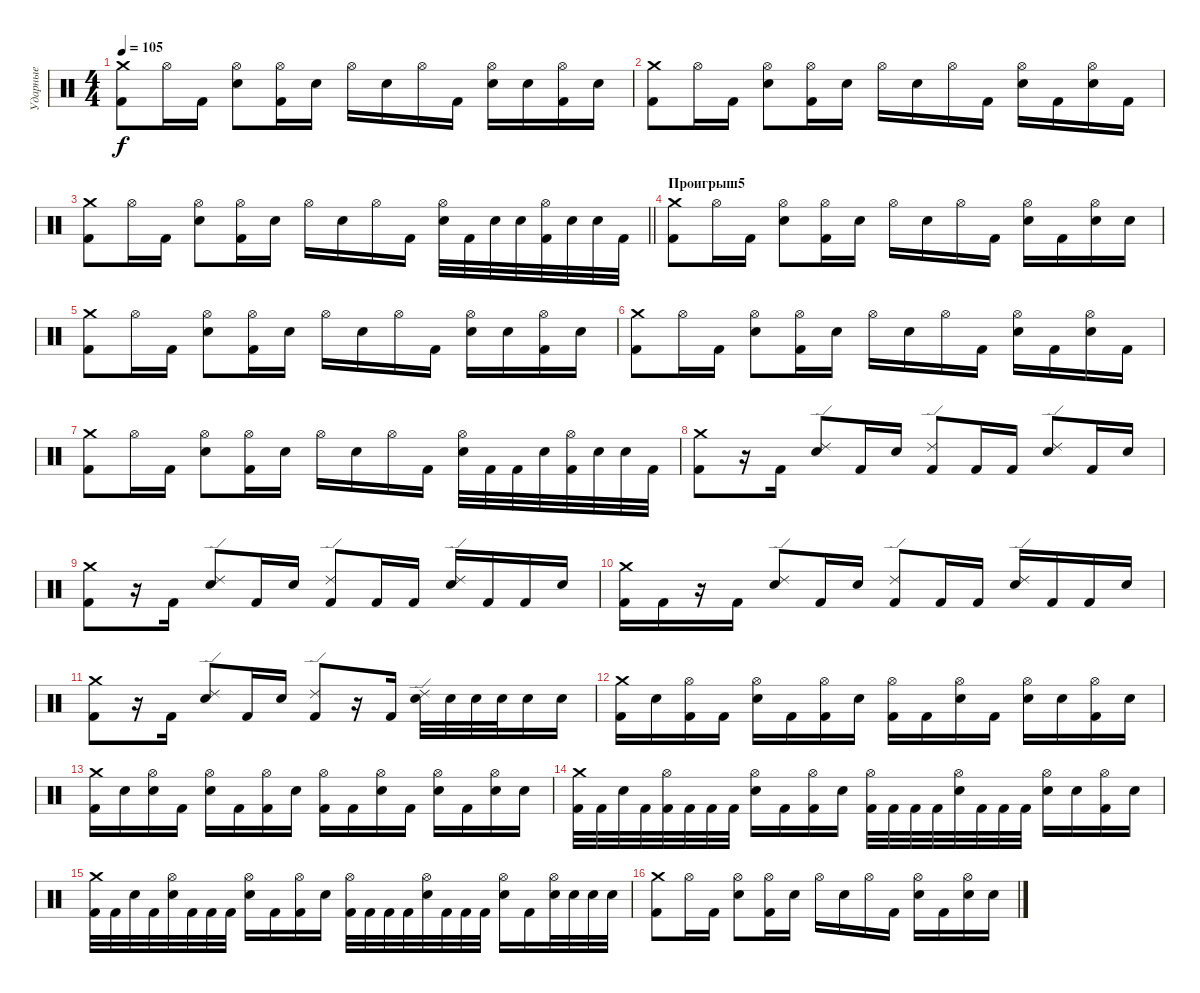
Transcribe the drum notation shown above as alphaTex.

\track ("Ударные" "Ударные") {instrument percussion}
\staff {score}
\articulation defaults
\ts (4 4)
\tempo 105
\clef neutral
\ks c
("Crash medium (hit)" "Kick (hit) 2").8{dy f} "Hi-Hat (open)".16 "Kick (hit) 2".16 ("Hi-Hat (open)" "Electric Snare (hit)").8 ("Hi-Hat (open)" "Kick (hit) 2").16 "Electric Snare (hit)".16 "Hi-Hat (open)".16 "Electric Snare (hit)".16 "Hi-Hat (open)".16 "Kick (hit) 2".16 ("Hi-Hat (open)" "Electric Snare (hit)").16 "Electric Snare (hit)".16 ("Hi-Hat (open)" "Kick (hit) 2").16 "Electric Snare (hit)".16 |
("Crash medium (hit)" "Kick (hit) 2").8 "Hi-Hat (open)".16 "Kick (hit) 2".16 ("Hi-Hat (open)" "Electric Snare (hit)").8 ("Hi-Hat (open)" "Kick (hit) 2").16 "Electric Snare (hit)".16 "Hi-Hat (open)".16 "Electric Snare (hit)".16 "Hi-Hat (open)".16 "Kick (hit) 2".16 ("Hi-Hat (open)" "Electric Snare (hit)").16 "Kick (hit) 2".16 ("Hi-Hat (open)" "Electric Snare (hit)").16 "Kick (hit) 2".16 |
\barLineRight lightlight
("Crash medium (hit)" "Kick (hit) 2").8 "Hi-Hat (open)".16 "Kick (hit) 2".16 ("Hi-Hat (open)" "Electric Snare (hit)").8 ("Hi-Hat (open)" "Kick (hit) 2").16 "Electric Snare (hit)".16 "Hi-Hat (open)".16 "Electric Snare (hit)".16 "Hi-Hat (open)".16 "Kick (hit) 2".16 ("Electric Snare (hit)" "Hi-Hat (open)").32 "Kick (hit) 2".32 "Electric Snare (hit)".32 "Electric Snare (hit)".32 ("Kick (hit) 2" "Hi-Hat (open)").32 "Electric Snare (hit)".32 "Electric Snare (hit)".32 "Kick (hit) 2".32 |
\section ("" "Проигрыш5")
("Crash medium (hit)" "Kick (hit) 2").8 "Hi-Hat (open)".16 "Kick (hit) 2".16 ("Hi-Hat (open)" "Electric Snare (hit)").8 ("Hi-Hat (open)" "Kick (hit) 2").16 "Electric Snare (hit)".16 "Hi-Hat (open)".16 "Electric Snare (hit)".16 "Hi-Hat (open)".16 "Kick (hit) 2".16 ("Hi-Hat (open)" "Electric Snare (hit)").16 "Kick (hit) 2".16 ("Hi-Hat (open)" "Electric Snare (hit)").16 "Electric Snare (hit)".16 |
("Crash medium (hit)" "Kick (hit) 2").8 "Hi-Hat (open)".16 "Kick (hit) 2".16 ("Hi-Hat (open)" "Electric Snare (hit)").8 ("Hi-Hat (open)" "Kick (hit) 2").16 "Electric Snare (hit)".16 "Hi-Hat (open)".16 "Electric Snare (hit)".16 "Hi-Hat (open)".16 "Kick (hit) 2".16 ("Hi-Hat (open)" "Electric Snare (hit)").16 "Electric Snare (hit)".16 ("Hi-Hat (open)" "Kick (hit) 2").16 "Electric Snare (hit)".16 |
("Crash medium (hit)" "Kick (hit) 2").8 "Hi-Hat (open)".16 "Kick (hit) 2".16 ("Hi-Hat (open)" "Electric Snare (hit)").8 ("Hi-Hat (open)" "Kick (hit) 2").16 "Electric Snare (hit)".16 "Hi-Hat (open)".16 "Electric Snare (hit)".16 "Hi-Hat (open)".16 "Kick (hit) 2".16 ("Hi-Hat (open)" "Electric Snare (hit)").16 "Kick (hit) 2".16 ("Hi-Hat (open)" "Electric Snare (hit)").16 "Kick (hit) 2".16 |
("Crash medium (hit)" "Kick (hit) 2").8 "Hi-Hat (open)".16 "Kick (hit) 2".16 ("Hi-Hat (open)" "Electric Snare (hit)").8 ("Hi-Hat (open)" "Kick (hit) 2").16 "Electric Snare (hit)".16 "Hi-Hat (open)".16 "Electric Snare (hit)".16 "Hi-Hat (open)".16 "Kick (hit) 2".16 ("Electric Snare (hit)" "Hi-Hat (open)").32 "Kick (hit) 2".32 "Kick (hit) 2".32 "Electric Snare (hit)".32 ("Kick (hit) 2" "Hi-Hat (open)").32 "Electric Snare (hit)".32 "Electric Snare (hit)".32 "Kick (hit) 2".32 |
("Crash medium (hit)" "Kick (hit) 2").8 r.16 "Kick (hit) 2".16 ("Ride (edge) 2" "Electric Snare (hit)").8 "Kick (hit) 2".16 "Electric Snare (hit)".16 ("Ride (edge) 2" "Kick (hit) 2").8 "Kick (hit) 2".16 "Kick (hit) 2".16 ("Ride (edge) 2" "Electric Snare (hit)").8 "Kick (hit) 2".16 "Electric Snare (hit)".16 |
("Crash medium (hit)" "Kick (hit) 2").8 r.16 "Kick (hit) 2".16 ("Ride (edge) 2" "Electric Snare (hit)").8 "Kick (hit) 2".16 "Electric Snare (hit)".16 ("Ride (edge) 2" "Kick (hit) 2").8 "Kick (hit) 2".16 "Kick (hit) 2".16 ("Ride (edge) 2" "Electric Snare (hit)").16 "Kick (hit) 2".16 "Kick (hit) 2".16 "Electric Snare (hit)".16 |
("Crash medium (hit)" "Kick (hit) 2").16 "Kick (hit) 2".16 r.16 "Kick (hit) 2".16 ("Ride (edge) 2" "Electric Snare (hit)").8 "Kick (hit) 2".16 "Electric Snare (hit)".16 ("Ride (edge) 2" "Kick (hit) 2").8 "Kick (hit) 2".16 "Kick (hit) 2".16 ("Ride (edge) 2" "Electric Snare (hit)").16 "Kick (hit) 2".16 "Kick (hit) 2".16 "Electric Snare (hit)".16 |
("Crash medium (hit)" "Kick (hit) 2").8 r.16 "Kick (hit) 2".16 ("Ride (edge) 2" "Electric Snare (hit)").8 "Kick (hit) 2".16 "Electric Snare (hit)".16 ("Ride (edge) 2" "Kick (hit) 2").8 r.16 "Kick (hit) 2".16 ("Electric Snare (hit)" "Ride (edge) 2").32 "Electric Snare (hit)".32 "Electric Snare (hit)".32 "Electric Snare (hit)".32 "Electric Snare (hit)".16 "Electric Snare (hit)".16 |
("Crash medium (hit)" "Kick (hit) 2").16 "Electric Snare (hit)".16 ("Hi-Hat (open)" "Kick (hit) 2").16 "Kick (hit) 2".16 ("Hi-Hat (open)" "Electric Snare (hit)").16 "Kick (hit) 2".16 ("Hi-Hat (open)" "Kick (hit) 2").16 "Electric Snare (hit)".16 ("Hi-Hat (open)" "Kick (hit) 2").16 "Kick (hit) 2".16 ("Hi-Hat (open)" "Electric Snare (hit)").16 "Kick (hit) 2".16 ("Hi-Hat (open)" "Electric Snare (hit)").16 "Electric Snare (hit)".16 ("Hi-Hat (open)" "Kick (hit) 2").16 "Electric Snare (hit)".16 |
("Crash medium (hit)" "Kick (hit) 2").16 "Electric Snare (hit)".16 ("Hi-Hat (open)" "Electric Snare (hit)").16 "Kick (hit) 2".16 ("Hi-Hat (open)" "Electric Snare (hit)").16 "Kick (hit) 2".16 ("Hi-Hat (open)" "Kick (hit) 2").16 "Electric Snare (hit)".16 ("Hi-Hat (open)" "Kick (hit) 2").16 "Kick (hit) 2".16 ("Hi-Hat (open)" "Electric Snare (hit)").16 "Kick (hit) 2".16 ("Hi-Hat (open)" "Electric Snare (hit)").16 "Kick (hit) 2".16 ("Hi-Hat (open)" "Electric Snare (hit)").16 "Electric Snare (hit)".16 |
("Crash medium (hit)" "Kick (hit) 2").32 "Kick (hit) 2".32 "Electric Snare (hit)".32 "Kick (hit) 2".32 ("Hi-Hat (open)" "Kick (hit) 2").32 "Kick (hit) 2".32 "Kick (hit) 2".32 "Kick (hit) 2".32 ("Hi-Hat (open)" "Electric Snare (hit)").16 "Kick (hit) 2".16 ("Hi-Hat (open)" "Kick (hit) 2").16 "Electric Snare (hit)".16 ("Hi-Hat (open)" "Kick (hit) 2").32 "Kick (hit) 2".32 "Kick (hit) 2".32 "Kick (hit) 2".32 ("Hi-Hat (open)" "Electric Snare (hit)").32 "Kick (hit) 2".32 "Kick (hit) 2".32 "Kick (hit) 2".32 ("Hi-Hat (open)" "Electric Snare (hit)").16 "Electric Snare (hit)".16 ("Hi-Hat (open)" "Kick (hit) 2").16 "Electric Snare (hit)".16 |
("Crash medium (hit)" "Kick (hit) 2").32 "Kick (hit) 2".32 "Electric Snare (hit)".32 "Kick (hit) 2".32 ("Hi-Hat (open)" "Electric Snare (hit)").32 "Kick (hit) 2".32 "Kick (hit) 2".32 "Kick (hit) 2".32 ("Hi-Hat (open)" "Electric Snare (hit)").16 "Kick (hit) 2".16 ("Hi-Hat (open)" "Kick (hit) 2").16 "Electric Snare (hit)".16 ("Hi-Hat (open)" "Kick (hit) 2").32 "Kick (hit) 2".32 "Kick (hit) 2".32 "Kick (hit) 2".32 ("Hi-Hat (open)" "Electric Snare (hit)").32 "Kick (hit) 2".32 "Kick (hit) 2".32 "Kick (hit) 2".32 ("Hi-Hat (open)" "Electric Snare (hit)").16 "Kick (hit) 2".16 ("Hi-Hat (open)" "Electric Snare (hit)").32 "Electric Snare (hit)".32 "Electric Snare (hit)".32 "Electric Snare (hit)".32 |
("Crash medium (hit)" "Kick (hit) 2").8 "Hi-Hat (open)".16 "Kick (hit) 2".16 ("Hi-Hat (open)" "Electric Snare (hit)").8 ("Hi-Hat (open)" "Kick (hit) 2").16 "Electric Snare (hit)".16 "Hi-Hat (open)".16 "Electric Snare (hit)".16 "Hi-Hat (open)".16 "Kick (hit) 2".16 ("Hi-Hat (open)" "Electric Snare (hit)").16 "Kick (hit) 2".16 ("Hi-Hat (open)" "Electric Snare (hit)").16 "Electric Snare (hit)".16
